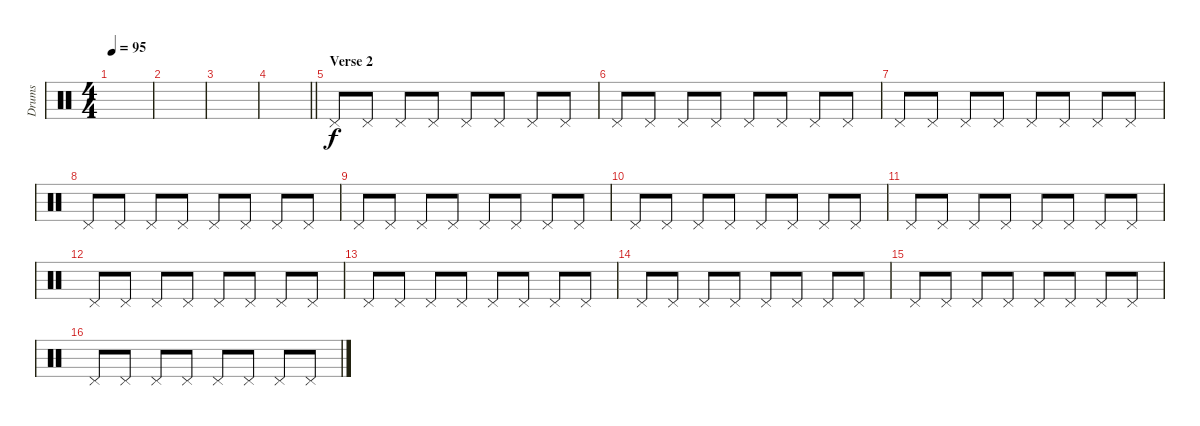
\track ("Drums" "Drums") {instrument percussion}
\staff {score}
\articulation defaults
\ts (4 4)
\tempo 95
\clef neutral
\ks c
|
|
|
\barLineRight lightlight
|
\section ("" "Verse 2")
"Pedal Hi-Hat (hit)".8 "Pedal Hi-Hat (hit)".8 "Pedal Hi-Hat (hit)".8 "Pedal Hi-Hat (hit)".8 "Pedal Hi-Hat (hit)".8 "Pedal Hi-Hat (hit)".8 "Pedal Hi-Hat (hit)".8 "Pedal Hi-Hat (hit)".8 |
"Pedal Hi-Hat (hit)".8 "Pedal Hi-Hat (hit)".8 "Pedal Hi-Hat (hit)".8 "Pedal Hi-Hat (hit)".8 "Pedal Hi-Hat (hit)".8 "Pedal Hi-Hat (hit)".8 "Pedal Hi-Hat (hit)".8 "Pedal Hi-Hat (hit)".8 |
"Pedal Hi-Hat (hit)".8 "Pedal Hi-Hat (hit)".8 "Pedal Hi-Hat (hit)".8 "Pedal Hi-Hat (hit)".8 "Pedal Hi-Hat (hit)".8 "Pedal Hi-Hat (hit)".8 "Pedal Hi-Hat (hit)".8 "Pedal Hi-Hat (hit)".8 |
"Pedal Hi-Hat (hit)".8 "Pedal Hi-Hat (hit)".8 "Pedal Hi-Hat (hit)".8 "Pedal Hi-Hat (hit)".8 "Pedal Hi-Hat (hit)".8 "Pedal Hi-Hat (hit)".8 "Pedal Hi-Hat (hit)".8 "Pedal Hi-Hat (hit)".8 |
"Pedal Hi-Hat (hit)".8 "Pedal Hi-Hat (hit)".8 "Pedal Hi-Hat (hit)".8 "Pedal Hi-Hat (hit)".8 "Pedal Hi-Hat (hit)".8 "Pedal Hi-Hat (hit)".8 "Pedal Hi-Hat (hit)".8 "Pedal Hi-Hat (hit)".8 |
"Pedal Hi-Hat (hit)".8 "Pedal Hi-Hat (hit)".8 "Pedal Hi-Hat (hit)".8 "Pedal Hi-Hat (hit)".8 "Pedal Hi-Hat (hit)".8 "Pedal Hi-Hat (hit)".8 "Pedal Hi-Hat (hit)".8 "Pedal Hi-Hat (hit)".8 |
"Pedal Hi-Hat (hit)".8 "Pedal Hi-Hat (hit)".8 "Pedal Hi-Hat (hit)".8 "Pedal Hi-Hat (hit)".8 "Pedal Hi-Hat (hit)".8 "Pedal Hi-Hat (hit)".8 "Pedal Hi-Hat (hit)".8 "Pedal Hi-Hat (hit)".8 |
"Pedal Hi-Hat (hit)".8 "Pedal Hi-Hat (hit)".8 "Pedal Hi-Hat (hit)".8 "Pedal Hi-Hat (hit)".8 "Pedal Hi-Hat (hit)".8 "Pedal Hi-Hat (hit)".8 "Pedal Hi-Hat (hit)".8 "Pedal Hi-Hat (hit)".8 |
"Pedal Hi-Hat (hit)".8 "Pedal Hi-Hat (hit)".8 "Pedal Hi-Hat (hit)".8 "Pedal Hi-Hat (hit)".8 "Pedal Hi-Hat (hit)".8 "Pedal Hi-Hat (hit)".8 "Pedal Hi-Hat (hit)".8 "Pedal Hi-Hat (hit)".8 |
"Pedal Hi-Hat (hit)".8 "Pedal Hi-Hat (hit)".8 "Pedal Hi-Hat (hit)".8 "Pedal Hi-Hat (hit)".8 "Pedal Hi-Hat (hit)".8 "Pedal Hi-Hat (hit)".8 "Pedal Hi-Hat (hit)".8 "Pedal Hi-Hat (hit)".8 |
"Pedal Hi-Hat (hit)".8 "Pedal Hi-Hat (hit)".8 "Pedal Hi-Hat (hit)".8 "Pedal Hi-Hat (hit)".8 "Pedal Hi-Hat (hit)".8 "Pedal Hi-Hat (hit)".8 "Pedal Hi-Hat (hit)".8 "Pedal Hi-Hat (hit)".8 |
"Pedal Hi-Hat (hit)".8 "Pedal Hi-Hat (hit)".8 "Pedal Hi-Hat (hit)".8 "Pedal Hi-Hat (hit)".8 "Pedal Hi-Hat (hit)".8 "Pedal Hi-Hat (hit)".8 "Pedal Hi-Hat (hit)".8 "Pedal Hi-Hat (hit)".8
